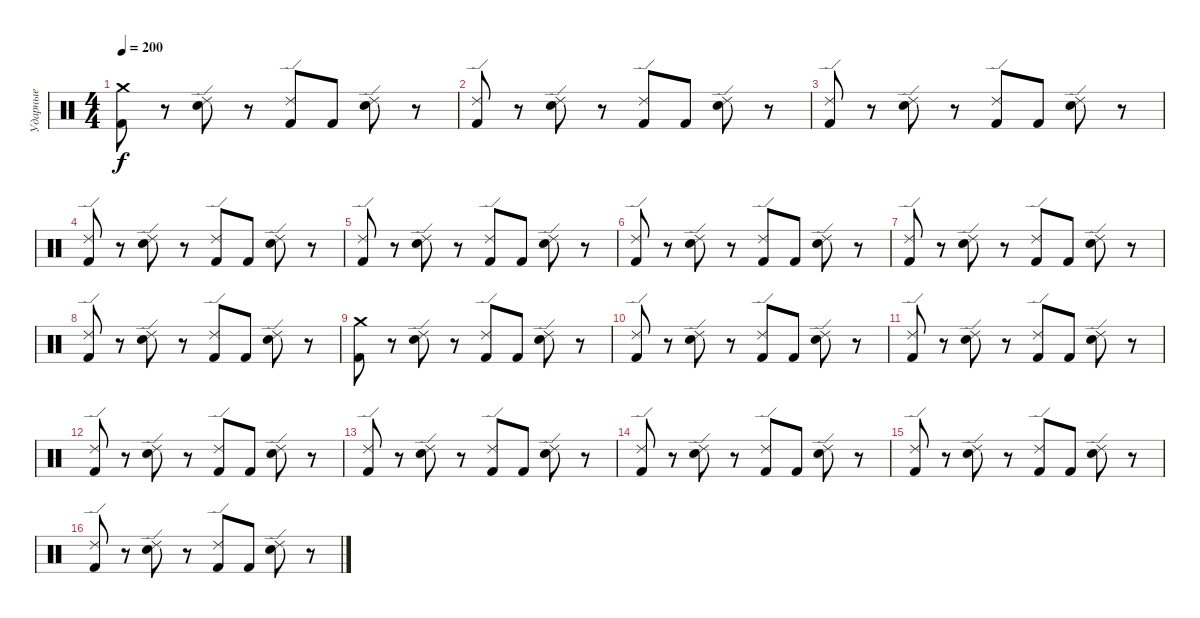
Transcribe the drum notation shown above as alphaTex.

\track ("Ударные" "Ударные") {instrument percussion}
\staff {score}
\articulation defaults
\ts (4 4)
\tempo 200
\clef neutral
\ks c
("Kick (hit) 2" "Crash medium (hit)").8{dy f} r.8 ("Electric Snare (hit)" "Ride (edge) 2").8 r.8 ("Kick (hit) 2" "Ride (edge) 2").8 "Kick (hit) 2".8 ("Electric Snare (hit)" "Ride (edge) 2").8 r.8 |
("Kick (hit) 2" "Ride (edge) 2").8 r.8 ("Electric Snare (hit)" "Ride (edge) 2").8 r.8 ("Kick (hit) 2" "Ride (edge) 2").8 "Kick (hit) 2".8 ("Electric Snare (hit)" "Ride (edge) 2").8 r.8 |
("Kick (hit) 2" "Ride (edge) 2").8 r.8 ("Electric Snare (hit)" "Ride (edge) 2").8 r.8 ("Kick (hit) 2" "Ride (edge) 2").8 "Kick (hit) 2".8 ("Electric Snare (hit)" "Ride (edge) 2").8 r.8 |
("Kick (hit) 2" "Ride (edge) 2").8 r.8 ("Electric Snare (hit)" "Ride (edge) 2").8 r.8 ("Kick (hit) 2" "Ride (edge) 2").8 "Kick (hit) 2".8 ("Electric Snare (hit)" "Ride (edge) 2").8 r.8 |
("Kick (hit) 2" "Ride (edge) 2").8 r.8 ("Electric Snare (hit)" "Ride (edge) 2").8 r.8 ("Kick (hit) 2" "Ride (edge) 2").8 "Kick (hit) 2".8 ("Electric Snare (hit)" "Ride (edge) 2").8 r.8 |
("Kick (hit) 2" "Ride (edge) 2").8 r.8 ("Electric Snare (hit)" "Ride (edge) 2").8 r.8 ("Kick (hit) 2" "Ride (edge) 2").8 "Kick (hit) 2".8 ("Electric Snare (hit)" "Ride (edge) 2").8 r.8 |
("Kick (hit) 2" "Ride (edge) 2").8 r.8 ("Electric Snare (hit)" "Ride (edge) 2").8 r.8 ("Kick (hit) 2" "Ride (edge) 2").8 "Kick (hit) 2".8 ("Electric Snare (hit)" "Ride (edge) 2").8 r.8 |
("Kick (hit) 2" "Ride (edge) 2").8 r.8 ("Electric Snare (hit)" "Ride (edge) 2").8 r.8 ("Kick (hit) 2" "Ride (edge) 2").8 "Kick (hit) 2".8 ("Electric Snare (hit)" "Ride (edge) 2").8 r.8 |
("Kick (hit) 2" "Crash medium (hit)").8 r.8 ("Electric Snare (hit)" "Ride (edge) 2").8 r.8 ("Kick (hit) 2" "Ride (edge) 2").8 "Kick (hit) 2".8 ("Electric Snare (hit)" "Ride (edge) 2").8 r.8 |
("Kick (hit) 2" "Ride (edge) 2").8 r.8 ("Electric Snare (hit)" "Ride (edge) 2").8 r.8 ("Kick (hit) 2" "Ride (edge) 2").8 "Kick (hit) 2".8 ("Electric Snare (hit)" "Ride (edge) 2").8 r.8 |
("Kick (hit) 2" "Ride (edge) 2").8 r.8 ("Electric Snare (hit)" "Ride (edge) 2").8 r.8 ("Kick (hit) 2" "Ride (edge) 2").8 "Kick (hit) 2".8 ("Electric Snare (hit)" "Ride (edge) 2").8 r.8 |
("Kick (hit) 2" "Ride (edge) 2").8 r.8 ("Electric Snare (hit)" "Ride (edge) 2").8 r.8 ("Kick (hit) 2" "Ride (edge) 2").8 "Kick (hit) 2".8 ("Electric Snare (hit)" "Ride (edge) 2").8 r.8 |
("Kick (hit) 2" "Ride (edge) 2").8 r.8 ("Electric Snare (hit)" "Ride (edge) 2").8 r.8 ("Kick (hit) 2" "Ride (edge) 2").8 "Kick (hit) 2".8 ("Electric Snare (hit)" "Ride (edge) 2").8 r.8 |
("Kick (hit) 2" "Ride (edge) 2").8 r.8 ("Electric Snare (hit)" "Ride (edge) 2").8 r.8 ("Kick (hit) 2" "Ride (edge) 2").8 "Kick (hit) 2".8 ("Electric Snare (hit)" "Ride (edge) 2").8 r.8 |
("Kick (hit) 2" "Ride (edge) 2").8 r.8 ("Electric Snare (hit)" "Ride (edge) 2").8 r.8 ("Kick (hit) 2" "Ride (edge) 2").8 "Kick (hit) 2".8 ("Electric Snare (hit)" "Ride (edge) 2").8 r.8 |
("Kick (hit) 2" "Ride (edge) 2").8 r.8 ("Electric Snare (hit)" "Ride (edge) 2").8 r.8 ("Kick (hit) 2" "Ride (edge) 2").8 "Kick (hit) 2".8 ("Electric Snare (hit)" "Ride (edge) 2").8 r.8
